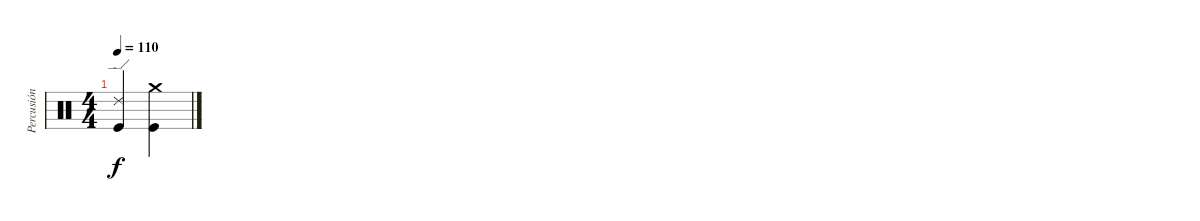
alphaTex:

\track ("Percusión" "Percusión") {instrument percussion}
\staff {score}
\articulation defaults
\ts (4 4)
\tempo 110
\clef neutral
\ks c
("Ride (edge) 2" "Kick (hit)").4{dy f} ("Crash medium (hit)" "Kick (hit)").4
